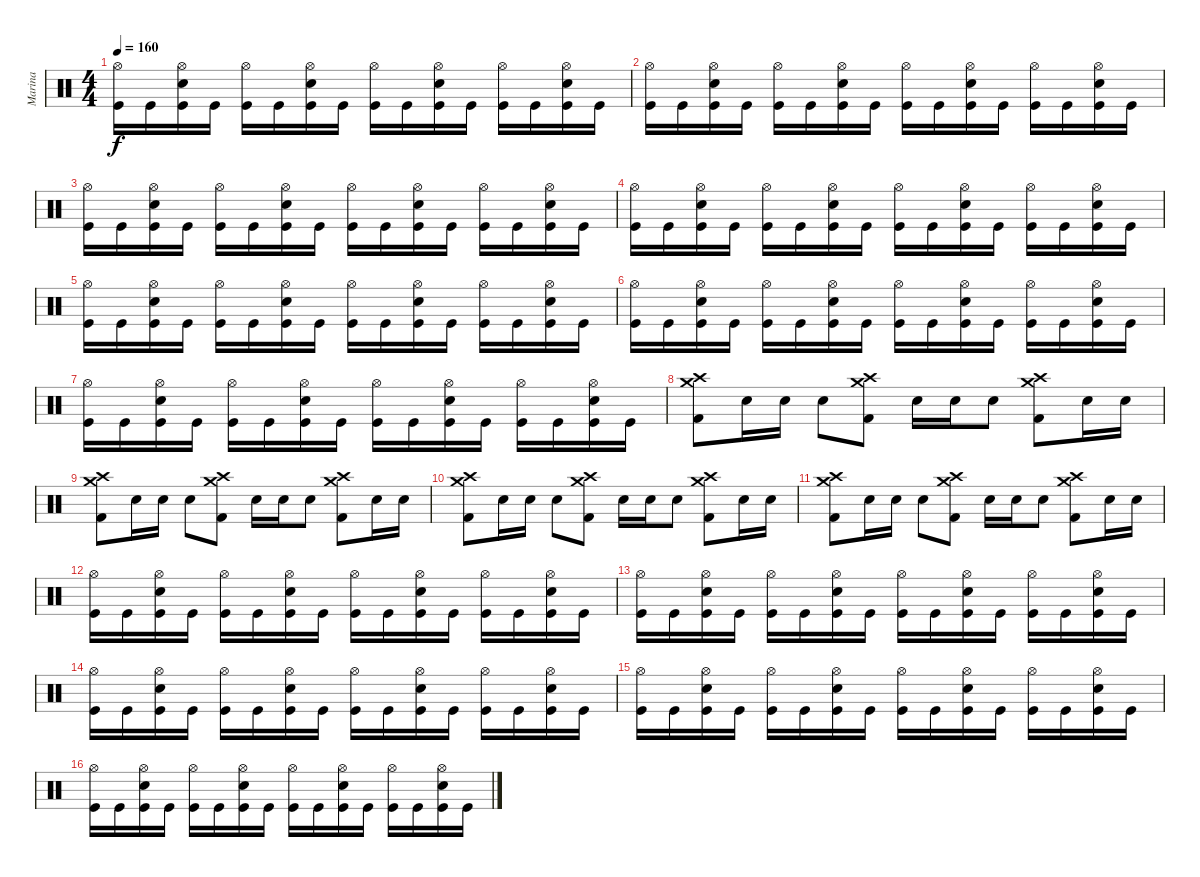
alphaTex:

\track ("Marina" "Marina") {instrument percussion}
\staff {score}
\articulation defaults
\ts (4 4)
\tempo 160
\clef neutral
\ks c
("Hi-Hat (open)" "Kick (hit)").16{dy f} "Kick (hit)".16 ("Hi-Hat (open)" "Snare (hit) 2" "Kick (hit)").16 "Kick (hit)".16 ("Hi-Hat (open)" "Kick (hit)").16 "Kick (hit)".16 ("Hi-Hat (open)" "Snare (hit) 2" "Kick (hit)").16 "Kick (hit)".16 ("Hi-Hat (open)" "Kick (hit)").16 "Kick (hit)".16 ("Hi-Hat (open)" "Snare (hit) 2" "Kick (hit)").16 "Kick (hit)".16 ("Hi-Hat (open)" "Kick (hit)").16 "Kick (hit)".16 ("Hi-Hat (open)" "Snare (hit) 2" "Kick (hit)").16 "Kick (hit)".16 |
("Hi-Hat (open)" "Kick (hit)").16 "Kick (hit)".16 ("Hi-Hat (open)" "Snare (hit) 2" "Kick (hit)").16 "Kick (hit)".16 ("Hi-Hat (open)" "Kick (hit)").16 "Kick (hit)".16 ("Hi-Hat (open)" "Snare (hit) 2" "Kick (hit)").16 "Kick (hit)".16 ("Hi-Hat (open)" "Kick (hit)").16 "Kick (hit)".16 ("Hi-Hat (open)" "Snare (hit) 2" "Kick (hit)").16 "Kick (hit)".16 ("Hi-Hat (open)" "Kick (hit)").16 "Kick (hit)".16 ("Hi-Hat (open)" "Snare (hit) 2" "Kick (hit)").16 "Kick (hit)".16 |
("Hi-Hat (open)" "Kick (hit)").16 "Kick (hit)".16 ("Hi-Hat (open)" "Snare (hit) 2" "Kick (hit)").16 "Kick (hit)".16 ("Hi-Hat (open)" "Kick (hit)").16 "Kick (hit)".16 ("Hi-Hat (open)" "Snare (hit) 2" "Kick (hit)").16 "Kick (hit)".16 ("Hi-Hat (open)" "Kick (hit)").16 "Kick (hit)".16 ("Hi-Hat (open)" "Snare (hit) 2" "Kick (hit)").16 "Kick (hit)".16 ("Hi-Hat (open)" "Kick (hit)").16 "Kick (hit)".16 ("Hi-Hat (open)" "Snare (hit) 2" "Kick (hit)").16 "Kick (hit)".16 |
("Hi-Hat (open)" "Kick (hit)").16 "Kick (hit)".16 ("Hi-Hat (open)" "Snare (hit) 2" "Kick (hit)").16 "Kick (hit)".16 ("Hi-Hat (open)" "Kick (hit)").16 "Kick (hit)".16 ("Hi-Hat (open)" "Snare (hit) 2" "Kick (hit)").16 "Kick (hit)".16 ("Hi-Hat (open)" "Kick (hit)").16 "Kick (hit)".16 ("Hi-Hat (open)" "Snare (hit) 2" "Kick (hit)").16 "Kick (hit)".16 ("Hi-Hat (open)" "Kick (hit)").16 "Kick (hit)".16 ("Hi-Hat (open)" "Snare (hit) 2" "Kick (hit)").16 "Kick (hit)".16 |
("Hi-Hat (open)" "Kick (hit)").16 "Kick (hit)".16 ("Hi-Hat (open)" "Snare (hit) 2" "Kick (hit)").16 "Kick (hit)".16 ("Hi-Hat (open)" "Kick (hit)").16 "Kick (hit)".16 ("Hi-Hat (open)" "Snare (hit) 2" "Kick (hit)").16 "Kick (hit)".16 ("Hi-Hat (open)" "Kick (hit)").16 "Kick (hit)".16 ("Hi-Hat (open)" "Snare (hit) 2" "Kick (hit)").16 "Kick (hit)".16 ("Hi-Hat (open)" "Kick (hit)").16 "Kick (hit)".16 ("Hi-Hat (open)" "Snare (hit) 2" "Kick (hit)").16 "Kick (hit)".16 |
("Hi-Hat (open)" "Kick (hit)").16 "Kick (hit)".16 ("Hi-Hat (open)" "Snare (hit) 2" "Kick (hit)").16 "Kick (hit)".16 ("Hi-Hat (open)" "Kick (hit)").16 "Kick (hit)".16 ("Hi-Hat (open)" "Snare (hit) 2" "Kick (hit)").16 "Kick (hit)".16 ("Hi-Hat (open)" "Kick (hit)").16 "Kick (hit)".16 ("Hi-Hat (open)" "Snare (hit) 2" "Kick (hit)").16 "Kick (hit)".16 ("Hi-Hat (open)" "Kick (hit)").16 "Kick (hit)".16 ("Hi-Hat (open)" "Snare (hit) 2" "Kick (hit)").16 "Kick (hit)".16 |
("Hi-Hat (open)" "Kick (hit)").16 "Kick (hit)".16 ("Hi-Hat (open)" "Snare (hit) 2" "Kick (hit)").16 "Kick (hit)".16 ("Hi-Hat (open)" "Kick (hit)").16 "Kick (hit)".16 ("Hi-Hat (open)" "Snare (hit) 2" "Kick (hit)").16 "Kick (hit)".16 ("Hi-Hat (open)" "Kick (hit)").16 "Kick (hit)".16 ("Hi-Hat (open)" "Snare (hit) 2" "Kick (hit)").16 "Kick (hit)".16 ("Hi-Hat (open)" "Kick (hit)").16 "Kick (hit)".16 ("Hi-Hat (open)" "Snare (hit) 2" "Kick (hit)").16 "Kick (hit)".16 |
("Kick (hit) 2" "Crash high (hit)" "Crash medium (hit)").8 "Electric Snare (hit)".16 "Electric Snare (hit)".16 "Electric Snare (hit)".8 ("Kick (hit) 2" "Crash high (hit)" "Crash medium (hit)").8 "Electric Snare (hit)".16 "Electric Snare (hit)".16 "Electric Snare (hit)".8 ("Kick (hit) 2" "Crash high (hit)" "Crash medium (hit)").8 "Electric Snare (hit)".16 "Electric Snare (hit)".16 |
("Kick (hit) 2" "Crash high (hit)" "Crash medium (hit)").8 "Electric Snare (hit)".16 "Electric Snare (hit)".16 "Electric Snare (hit)".8 ("Kick (hit) 2" "Crash high (hit)" "Crash medium (hit)").8 "Electric Snare (hit)".16 "Electric Snare (hit)".16 "Electric Snare (hit)".8 ("Kick (hit) 2" "Crash high (hit)" "Crash medium (hit)").8 "Electric Snare (hit)".16 "Electric Snare (hit)".16 |
("Kick (hit) 2" "Crash high (hit)" "Crash medium (hit)").8 "Electric Snare (hit)".16 "Electric Snare (hit)".16 "Electric Snare (hit)".8 ("Kick (hit) 2" "Crash high (hit)" "Crash medium (hit)").8 "Electric Snare (hit)".16 "Electric Snare (hit)".16 "Electric Snare (hit)".8 ("Kick (hit) 2" "Crash high (hit)" "Crash medium (hit)").8 "Electric Snare (hit)".16 "Electric Snare (hit)".16 |
("Kick (hit) 2" "Crash high (hit)" "Crash medium (hit)").8 "Electric Snare (hit)".16 "Electric Snare (hit)".16 "Electric Snare (hit)".8 ("Kick (hit) 2" "Crash high (hit)" "Crash medium (hit)").8 "Electric Snare (hit)".16 "Electric Snare (hit)".16 "Electric Snare (hit)".8 ("Kick (hit) 2" "Crash high (hit)" "Crash medium (hit)").8 "Electric Snare (hit)".16 "Electric Snare (hit)".16 |
("Hi-Hat (open)" "Kick (hit)").16 "Kick (hit)".16 ("Hi-Hat (open)" "Snare (hit) 2" "Kick (hit)").16 "Kick (hit)".16 ("Hi-Hat (open)" "Kick (hit)").16 "Kick (hit)".16 ("Hi-Hat (open)" "Snare (hit) 2" "Kick (hit)").16 "Kick (hit)".16 ("Hi-Hat (open)" "Kick (hit)").16 "Kick (hit)".16 ("Hi-Hat (open)" "Snare (hit) 2" "Kick (hit)").16 "Kick (hit)".16 ("Hi-Hat (open)" "Kick (hit)").16 "Kick (hit)".16 ("Hi-Hat (open)" "Snare (hit) 2" "Kick (hit)").16 "Kick (hit)".16 |
("Hi-Hat (open)" "Kick (hit)").16 "Kick (hit)".16 ("Hi-Hat (open)" "Snare (hit) 2" "Kick (hit)").16 "Kick (hit)".16 ("Hi-Hat (open)" "Kick (hit)").16 "Kick (hit)".16 ("Hi-Hat (open)" "Snare (hit) 2" "Kick (hit)").16 "Kick (hit)".16 ("Hi-Hat (open)" "Kick (hit)").16 "Kick (hit)".16 ("Hi-Hat (open)" "Snare (hit) 2" "Kick (hit)").16 "Kick (hit)".16 ("Hi-Hat (open)" "Kick (hit)").16 "Kick (hit)".16 ("Hi-Hat (open)" "Snare (hit) 2" "Kick (hit)").16 "Kick (hit)".16 |
("Hi-Hat (open)" "Kick (hit)").16 "Kick (hit)".16 ("Hi-Hat (open)" "Snare (hit) 2" "Kick (hit)").16 "Kick (hit)".16 ("Hi-Hat (open)" "Kick (hit)").16 "Kick (hit)".16 ("Hi-Hat (open)" "Snare (hit) 2" "Kick (hit)").16 "Kick (hit)".16 ("Hi-Hat (open)" "Kick (hit)").16 "Kick (hit)".16 ("Hi-Hat (open)" "Snare (hit) 2" "Kick (hit)").16 "Kick (hit)".16 ("Hi-Hat (open)" "Kick (hit)").16 "Kick (hit)".16 ("Hi-Hat (open)" "Snare (hit) 2" "Kick (hit)").16 "Kick (hit)".16 |
("Hi-Hat (open)" "Kick (hit)").16 "Kick (hit)".16 ("Hi-Hat (open)" "Snare (hit) 2" "Kick (hit)").16 "Kick (hit)".16 ("Hi-Hat (open)" "Kick (hit)").16 "Kick (hit)".16 ("Hi-Hat (open)" "Snare (hit) 2" "Kick (hit)").16 "Kick (hit)".16 ("Hi-Hat (open)" "Kick (hit)").16 "Kick (hit)".16 ("Hi-Hat (open)" "Snare (hit) 2" "Kick (hit)").16 "Kick (hit)".16 ("Hi-Hat (open)" "Kick (hit)").16 "Kick (hit)".16 ("Hi-Hat (open)" "Snare (hit) 2" "Kick (hit)").16 "Kick (hit)".16 |
("Hi-Hat (open)" "Kick (hit)").16 "Kick (hit)".16 ("Hi-Hat (open)" "Snare (hit) 2" "Kick (hit)").16 "Kick (hit)".16 ("Hi-Hat (open)" "Kick (hit)").16 "Kick (hit)".16 ("Hi-Hat (open)" "Snare (hit) 2" "Kick (hit)").16 "Kick (hit)".16 ("Hi-Hat (open)" "Kick (hit)").16 "Kick (hit)".16 ("Hi-Hat (open)" "Snare (hit) 2" "Kick (hit)").16 "Kick (hit)".16 ("Hi-Hat (open)" "Kick (hit)").16 "Kick (hit)".16 ("Hi-Hat (open)" "Snare (hit) 2" "Kick (hit)").16 "Kick (hit)".16
